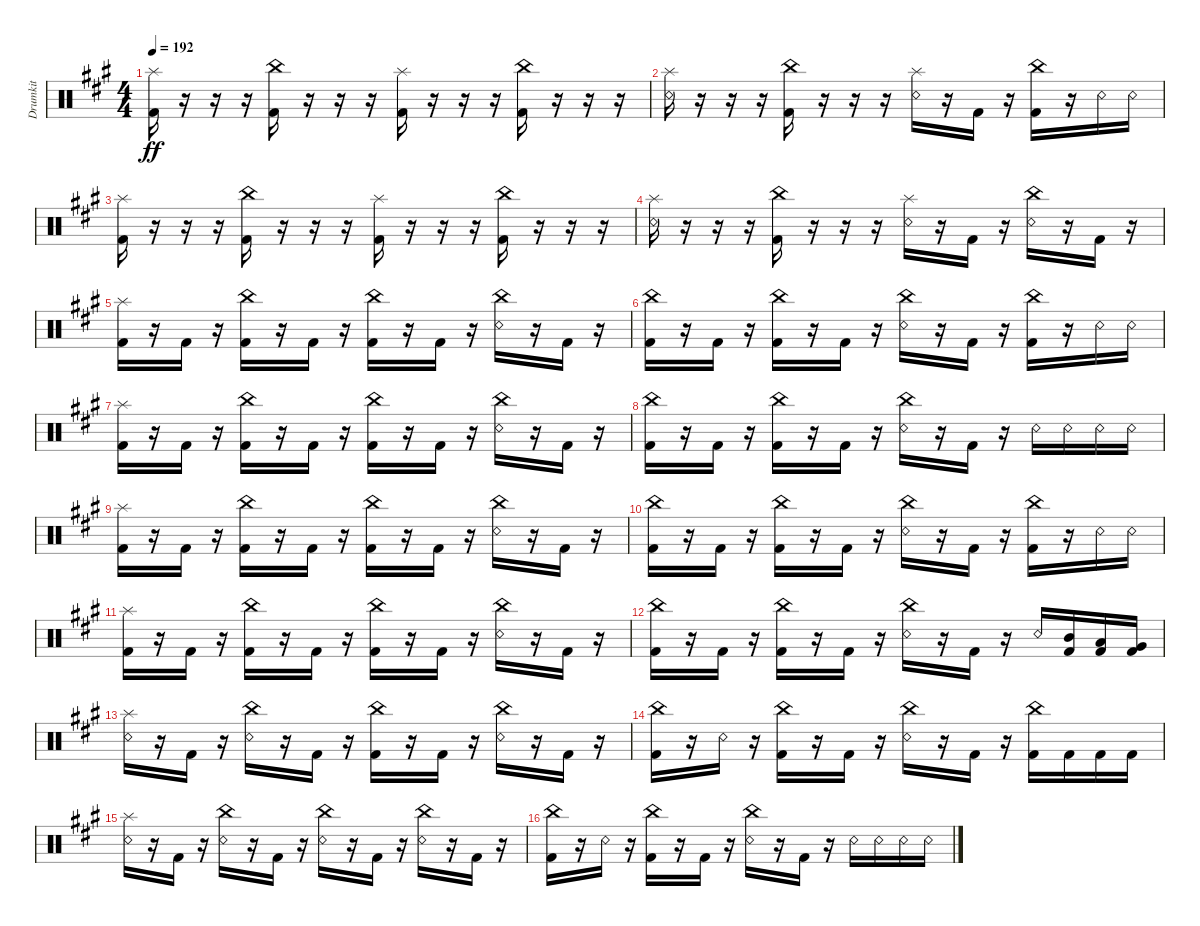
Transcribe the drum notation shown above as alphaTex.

\track ("Drumkit" "Drumkit") {instrument percussion}
\staff {score}
\articulation defaults
\ts (4 4)
\tempo 192
\clef neutral
\ks a
("Kick (hit) 2" "Splash (hit)").16{dy ff} r.16 r.16 r.16 ("Kick (hit) 2" "China (hit)").16 r.16 r.16 r.16 ("Kick (hit) 2" "Splash (hit)").16 r.16 r.16 r.16 ("Kick (hit) 2" "China (hit)").16 r.16 r.16 r.16 |
("Snare (rim shot)" "Splash (hit)").16 r.16 r.16 r.16 ("Kick (hit) 2" "China (hit)").16 r.16 r.16 r.16 ("Splash (hit)" "Snare (rim shot)").16 r.16 "Kick (hit) 2".16 r.16 ("Kick (hit) 2" "China (hit)").16 r.16 "Snare (rim shot)".16 "Snare (rim shot)".16 |
("Kick (hit) 2" "Splash (hit)").16 r.16 r.16 r.16 ("Kick (hit) 2" "China (hit)").16 r.16 r.16 r.16 ("Kick (hit) 2" "Splash (hit)").16 r.16 r.16 r.16 ("Kick (hit) 2" "China (hit)").16 r.16 r.16 r.16 |
("Snare (rim shot)" "Splash (hit)").16 r.16 r.16 r.16 ("Kick (hit) 2" "China (hit)").16 r.16 r.16 r.16 ("Splash (hit)" "Snare (rim shot)").16 r.16 "Kick (hit) 2".16 r.16 ("China (hit)" "Snare (rim shot)").16 r.16 "Kick (hit) 2".16 r.16 |
("Kick (hit) 2" "Splash (hit)").16 r.16 "Kick (hit) 2".16 r.16 ("Kick (hit) 2" "China (hit)").16 r.16 "Kick (hit) 2".16 r.16 ("Kick (hit) 2" "China (hit)").16 r.16 "Kick (hit) 2".16 r.16 ("Snare (rim shot)" "China (hit)").16 r.16 "Kick (hit) 2".16 r.16 |
("Kick (hit) 2" "China (hit)").16 r.16 "Kick (hit) 2".16 r.16 ("Kick (hit) 2" "China (hit)").16 r.16 "Kick (hit) 2".16 r.16 ("Snare (rim shot)" "China (hit)").16 r.16 "Kick (hit) 2".16 r.16 ("Kick (hit) 2" "China (hit)").16 r.16 "Snare (rim shot)".16 "Snare (rim shot)".16 |
("Kick (hit) 2" "Splash (hit)").16 r.16 "Kick (hit) 2".16 r.16 ("Kick (hit) 2" "China (hit)").16 r.16 "Kick (hit) 2".16 r.16 ("Kick (hit) 2" "China (hit)").16 r.16 "Kick (hit) 2".16 r.16 ("Snare (rim shot)" "China (hit)").16 r.16 "Kick (hit) 2".16 r.16 |
("Kick (hit) 2" "China (hit)").16 r.16 "Kick (hit) 2".16 r.16 ("Kick (hit) 2" "China (hit)").16 r.16 "Kick (hit) 2".16 r.16 ("Snare (rim shot)" "China (hit)").16 r.16 "Kick (hit) 2".16 r.16 "Snare (rim shot)".16 "Snare (rim shot)".16 "Snare (rim shot)".16 "Snare (rim shot)".16 |
("Kick (hit) 2" "Splash (hit)").16 r.16 "Kick (hit) 2".16 r.16 ("Kick (hit) 2" "China (hit)").16 r.16 "Kick (hit) 2".16 r.16 ("Kick (hit) 2" "China (hit)").16 r.16 "Kick (hit) 2".16 r.16 ("Snare (rim shot)" "China (hit)").16 r.16 "Kick (hit) 2".16 r.16 |
("Kick (hit) 2" "China (hit)").16 r.16 "Kick (hit) 2".16 r.16 ("Kick (hit) 2" "China (hit)").16 r.16 "Kick (hit) 2".16 r.16 ("Snare (rim shot)" "China (hit)").16 r.16 "Kick (hit) 2".16 r.16 ("Kick (hit) 2" "China (hit)").16 r.16 "Snare (rim shot)".16 "Snare (rim shot)".16 |
("Kick (hit) 2" "Splash (hit)").16 r.16 "Kick (hit) 2".16 r.16 ("Kick (hit) 2" "China (hit)").16 r.16 "Kick (hit) 2".16 r.16 ("Kick (hit) 2" "China (hit)").16 r.16 "Kick (hit) 2".16 r.16 ("Snare (rim shot)" "China (hit)").16 r.16 "Kick (hit) 2".16 r.16 |
("Kick (hit) 2" "China (hit)").16 r.16 "Kick (hit) 2".16 r.16 ("Kick (hit) 2" "China (hit)").16 r.16 "Kick (hit) 2".16 r.16 ("Snare (rim shot)" "China (hit)").16 r.16 "Kick (hit) 2".16 r.16 "Snare (rim shot)".16 ("Mid Tom (hit)" "Kick (hit) 2").16 ("Low Tom (hit)" "Kick (hit) 2").16 ("Very Low Tom (hit)" "Kick (hit) 2").16 |
("Snare (rim shot)" "Splash (hit)").16 r.16 "Kick (hit) 2".16 r.16 ("Snare (rim shot)" "China (hit)").16 r.16 "Kick (hit) 2".16 r.16 ("Kick (hit) 2" "China (hit)").16 r.16 "Kick (hit) 2".16 r.16 ("Snare (rim shot)" "China (hit)").16 r.16 "Kick (hit) 2".16 r.16 |
("Kick (hit) 2" "China (hit)").16 r.16 "Snare (rim shot)".16 r.16 ("Kick (hit) 2" "China (hit)").16 r.16 "Kick (hit) 2".16 r.16 ("Snare (rim shot)" "China (hit)").16 r.16 "Kick (hit) 2".16 r.16 ("Kick (hit) 2" "China (hit)").16 "Kick (hit) 2".16 "Kick (hit) 2".16 "Kick (hit) 2".16 |
("Splash (hit)" "Snare (rim shot)").16 r.16 "Kick (hit) 2".16 r.16 ("Snare (rim shot)" "China (hit)").16 r.16 "Kick (hit) 2".16 r.16 ("Snare (rim shot)" "China (hit)").16 r.16 "Kick (hit) 2".16 r.16 ("Snare (rim shot)" "China (hit)").16 r.16 "Kick (hit) 2".16 r.16 |
("Kick (hit) 2" "China (hit)").16 r.16 "Snare (rim shot)".16 r.16 ("Kick (hit) 2" "China (hit)").16 r.16 "Kick (hit) 2".16 r.16 ("Snare (rim shot)" "China (hit)").16 r.16 "Kick (hit) 2".16 r.16 "Snare (rim shot)".16 "Snare (rim shot)".16 "Snare (rim shot)".16 "Snare (rim shot)".16
